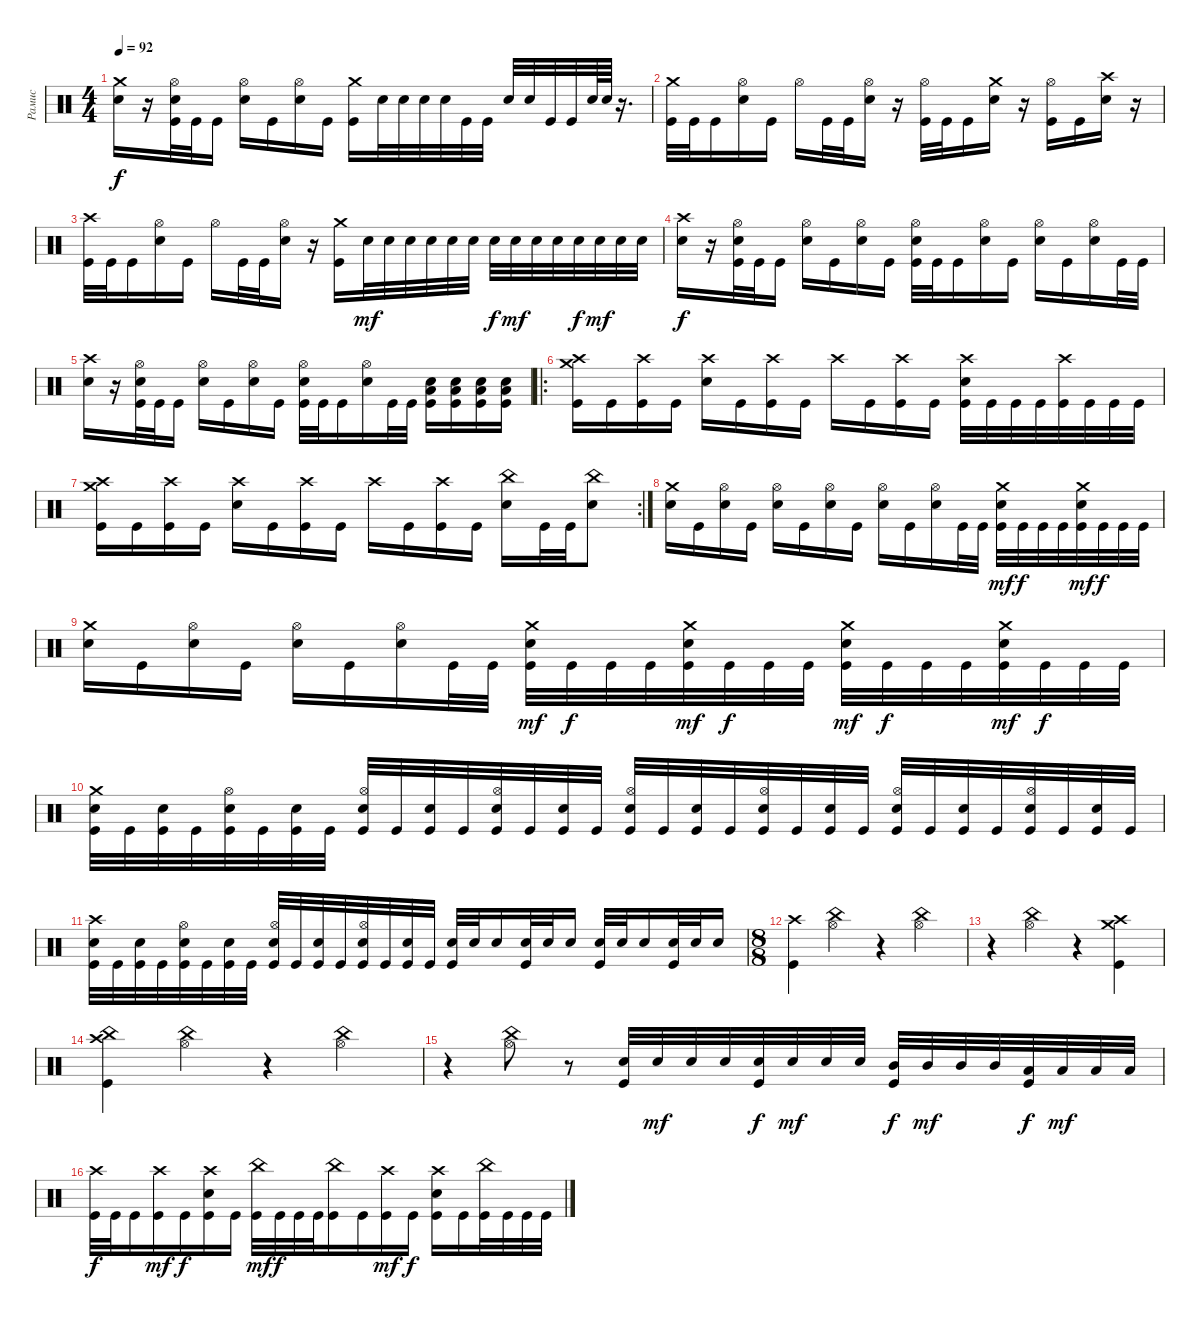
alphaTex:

\track ("Рамис" "Рамис") {instrument percussion}
\staff {score}
\articulation defaults
\ts (4 4)
\tempo 92
\clef neutral
\ks c
("Crash medium (hit)" "Electric Snare (hit)").16{dy f} r.16 ("Hi-Hat (open)" "Electric Snare (hit)" "Kick (hit)").32 "Kick (hit)".32 "Kick (hit)".16 ("Hi-Hat (open)" "Electric Snare (hit)").16 "Kick (hit)".16 ("Hi-Hat (open)" "Electric Snare (hit)").16 "Kick (hit)".16 ("Crash medium (hit)" "Kick (hit)").16 "Electric Snare (hit)".32 "Electric Snare (hit)".32 "Electric Snare (hit)".32 "Electric Snare (hit)".32 "Kick (hit)".32 "Kick (hit)".32 "Electric Snare (hit)".32 "Electric Snare (hit)".32 "Kick (hit)".32 "Kick (hit)".32 "Electric Snare (hit)".64 "Electric Snare (hit)".64 r.16{d} |
("Crash medium (hit)" "Kick (hit)").32 "Kick (hit)".32 "Kick (hit)".16 ("Hi-Hat (open)" "Electric Snare (hit)").16 "Kick (hit)".16 "Hi-Hat (open)".16 "Kick (hit)".32 "Kick (hit)".32 ("Hi-Hat (open)" "Electric Snare (hit)").16 r.16 ("Hi-Hat (open)" "Kick (hit)").32 "Kick (hit)".32 "Kick (hit)".16 ("Crash medium (hit)" "Electric Snare (hit)").16 r.16 ("Hi-Hat (open)" "Kick (hit)").16 "Kick (hit)".16 ("Crash high (hit)" "Electric Snare (hit)").16 r.16 |
("Crash high (hit)" "Kick (hit)").32 "Kick (hit)".32 "Kick (hit)".16 ("Hi-Hat (open)" "Electric Snare (hit)").16 "Kick (hit)".16 "Hi-Hat (open)".16 "Kick (hit)".32 "Kick (hit)".32 ("Hi-Hat (open)" "Electric Snare (hit)").16 r.16 ("Crash medium (hit)" "Kick (hit)").16 "Electric Snare (hit)".32{dy mf} "Electric Snare (hit)".32 "Electric Snare (hit)".32 "Electric Snare (hit)".32 "Electric Snare (hit)".32 "Electric Snare (hit)".32 "Electric Snare (hit)".32{dy f} "Electric Snare (hit)".32{dy mf} "Electric Snare (hit)".32 "Electric Snare (hit)".32 "Electric Snare (hit)".32{dy f} "Electric Snare (hit)".32{dy mf} "Electric Snare (hit)".32 "Electric Snare (hit)".32 |
("Crash high (hit)" "Electric Snare (hit)").16{dy f} r.16 ("Hi-Hat (open)" "Electric Snare (hit)" "Kick (hit)").32 "Kick (hit)".32 "Kick (hit)".16 ("Hi-Hat (open)" "Electric Snare (hit)").16 "Kick (hit)".16 ("Hi-Hat (open)" "Electric Snare (hit)").16 "Kick (hit)".16 ("Hi-Hat (open)" "Electric Snare (hit)" "Kick (hit)").32 "Kick (hit)".32 "Kick (hit)".16 ("Hi-Hat (open)" "Electric Snare (hit)").16 "Kick (hit)".16 ("Hi-Hat (open)" "Electric Snare (hit)").16 "Kick (hit)".16 ("Hi-Hat (open)" "Electric Snare (hit)").16 "Kick (hit)".32 "Kick (hit)".32 |
("Crash high (hit)" "Electric Snare (hit)").16 r.16 ("Hi-Hat (open)" "Electric Snare (hit)" "Kick (hit)").32 "Kick (hit)".32 "Kick (hit)".16 ("Hi-Hat (open)" "Electric Snare (hit)").16 "Kick (hit)".16 ("Hi-Hat (open)" "Electric Snare (hit)").16 "Kick (hit)".16 ("Hi-Hat (open)" "Electric Snare (hit)" "Kick (hit)").32 "Kick (hit)".32 "Kick (hit)".16 ("Hi-Hat (open)" "Electric Snare (hit)").16 "Kick (hit)".32 "Kick (hit)".32 ("Electric Snare (hit)" "Low Floor Tom (hit)" "Kick (hit)").16 ("Electric Snare (hit)" "Low Floor Tom (hit)" "Kick (hit)").16 ("Electric Snare (hit)" "Low Floor Tom (hit)" "Kick (hit)").16 ("Electric Snare (hit)" "Low Floor Tom (hit)" "Kick (hit)").16 |
\ro
("Crash high (hit)" "Crash medium (hit)" "Kick (hit)").16 "Kick (hit)".16 ("Crash high (hit)" "Kick (hit)").16 "Kick (hit)".16 ("Crash high (hit)" "Electric Snare (hit)").16 "Kick (hit)".16 ("Crash high (hit)" "Kick (hit)").16 "Kick (hit)".16 "Crash high (hit)".16 "Kick (hit)".16 ("Crash high (hit)" "Kick (hit)").16 "Kick (hit)".16 ("Crash high (hit)" "Electric Snare (hit)" "Kick (hit)").32 "Kick (hit)".32 "Kick (hit)".32 "Kick (hit)".32 ("Crash high (hit)" "Kick (hit)").32 "Kick (hit)".32 "Kick (hit)".32 "Kick (hit)".32 |
\rc 2
("Crash medium (hit)" "Crash high (hit)" "Kick (hit)").16 "Kick (hit)".16 ("Crash high (hit)" "Kick (hit)").16 "Kick (hit)".16 ("Crash high (hit)" "Electric Snare (hit)").16 "Kick (hit)".16 ("Crash high (hit)" "Kick (hit)").16 "Kick (hit)".16 "Crash high (hit)".16 "Kick (hit)".16 ("Crash high (hit)" "Kick (hit)").16 "Kick (hit)".16 ("China (hit)" "Electric Snare (hit)").16 "Kick (hit)".32 "Kick (hit)".32 ("China (hit)" "Electric Snare (hit)").8 |
("Crash medium (hit)" "Electric Snare (hit)").16 "Kick (hit)".16 ("Hi-Hat (open)" "Electric Snare (hit)").16 "Kick (hit)".16 ("Hi-Hat (open)" "Electric Snare (hit)").16 "Kick (hit)".16 ("Hi-Hat (open)" "Electric Snare (hit)").16 "Kick (hit)".16 ("Hi-Hat (open)" "Electric Snare (hit)").16 "Kick (hit)".16 ("Hi-Hat (open)" "Electric Snare (hit)").16 "Kick (hit)".32 "Kick (hit)".32 ("Crash medium (hit)" "Electric Snare (hit)" "Kick (hit)").32{dy mf} "Kick (hit)".32{dy f} "Kick (hit)".32 "Kick (hit)".32 ("Crash medium (hit)" "Electric Snare (hit)" "Kick (hit)").32{dy mf} "Kick (hit)".32{dy f} "Kick (hit)".32 "Kick (hit)".32 |
("Crash medium (hit)" "Electric Snare (hit)").16 "Kick (hit)".16 ("Hi-Hat (open)" "Electric Snare (hit)").16 "Kick (hit)".16 ("Hi-Hat (open)" "Electric Snare (hit)").16 "Kick (hit)".16 ("Hi-Hat (open)" "Electric Snare (hit)").16 "Kick (hit)".32 "Kick (hit)".32 ("Crash medium (hit)" "Electric Snare (hit)" "Kick (hit)").32{dy mf} "Kick (hit)".32{dy f} "Kick (hit)".32 "Kick (hit)".32 ("Crash medium (hit)" "Electric Snare (hit)" "Kick (hit)").32{dy mf} "Kick (hit)".32{dy f} "Kick (hit)".32 "Kick (hit)".32 ("Crash medium (hit)" "Electric Snare (hit)" "Kick (hit)").32{dy mf} "Kick (hit)".32{dy f} "Kick (hit)".32 "Kick (hit)".32 ("Crash medium (hit)" "Electric Snare (hit)" "Kick (hit)").32{dy mf} "Kick (hit)".32{dy f} "Kick (hit)".32 "Kick (hit)".32 |
("Crash medium (hit)" "Electric Snare (hit)" "Kick (hit)").32 "Kick (hit)".32 ("Electric Snare (hit)" "Kick (hit)").32 "Kick (hit)".32 ("Hi-Hat (open)" "Electric Snare (hit)" "Kick (hit)").32 "Kick (hit)".32 ("Electric Snare (hit)" "Kick (hit)").32 "Kick (hit)".32 ("Hi-Hat (open)" "Electric Snare (hit)" "Kick (hit)").32 "Kick (hit)".32 ("Electric Snare (hit)" "Kick (hit)").32 "Kick (hit)".32 ("Hi-Hat (open)" "Electric Snare (hit)" "Kick (hit)").32 "Kick (hit)".32 ("Electric Snare (hit)" "Kick (hit)").32 "Kick (hit)".32 ("Hi-Hat (open)" "Electric Snare (hit)" "Kick (hit)").32 "Kick (hit)".32 ("Electric Snare (hit)" "Kick (hit)").32 "Kick (hit)".32 ("Hi-Hat (open)" "Electric Snare (hit)" "Kick (hit)").32 "Kick (hit)".32 ("Electric Snare (hit)" "Kick (hit)").32 "Kick (hit)".32 ("Hi-Hat (open)" "Electric Snare (hit)" "Kick (hit)").32 "Kick (hit)".32 ("Electric Snare (hit)" "Kick (hit)").32 "Kick (hit)".32 ("Hi-Hat (open)" "Electric Snare (hit)" "Kick (hit)").32 "Kick (hit)".32 ("Electric Snare (hit)" "Kick (hit)").32 "Kick (hit)".32 |
("Crash high (hit)" "Electric Snare (hit)" "Kick (hit)").32 "Kick (hit)".32 ("Electric Snare (hit)" "Kick (hit)").32 "Kick (hit)".32 ("Hi-Hat (open)" "Electric Snare (hit)" "Kick (hit)").32 "Kick (hit)".32 ("Electric Snare (hit)" "Kick (hit)").32 "Kick (hit)".32 ("Hi-Hat (open)" "Electric Snare (hit)" "Kick (hit)").32 "Kick (hit)".32 ("Electric Snare (hit)" "Kick (hit)").32 "Kick (hit)".32 ("Hi-Hat (open)" "Electric Snare (hit)" "Kick (hit)").32 "Kick (hit)".32 ("Electric Snare (hit)" "Kick (hit)").32 "Kick (hit)".32 ("Kick (hit)" "Electric Snare (hit)").32 "Electric Snare (hit)".32 "Electric Snare (hit)".16 ("Kick (hit)" "Electric Snare (hit)").32 "Electric Snare (hit)".32 "Electric Snare (hit)".16 ("Kick (hit)" "Electric Snare (hit)").32 "Electric Snare (hit)".32 "Electric Snare (hit)".16 ("Kick (hit)" "Electric Snare (hit)").32 "Electric Snare (hit)".32 "Electric Snare (hit)".16 |
\ts (8 8)
("Crash high (hit)" "Kick (hit)").4 ("Hi-Hat (open)" "China (hit)").4 r.4 ("Hi-Hat (open)" "China (hit)").4 |
r.4 ("Hi-Hat (open)" "China (hit)").4 r.4 ("Crash medium (hit)" "Crash high (hit)" "Kick (hit)").4 |
("China (hit)" "Crash high (hit)" "Kick (hit)").4 ("China (hit)" "Hi-Hat (open)").4 r.4 ("Hi-Hat (open)" "China (hit)").4 |
r.4 ("China (hit)" "Hi-Hat (open)").8 r.8 ("Electric Snare (hit)" "Kick (hit)").32 "Electric Snare (hit)".32{dy mf} "Electric Snare (hit)".32 "Electric Snare (hit)".32 ("Electric Snare (hit)" "Kick (hit)").32{dy f} "Electric Snare (hit)".32{dy mf} "Electric Snare (hit)".32 "Electric Snare (hit)".32 ("Mid Tom (hit)" "Kick (hit)").32{dy f} "Mid Tom (hit)".32{dy mf} "Mid Tom (hit)".32 "Mid Tom (hit)".32 ("Low Tom (hit)" "Kick (hit)").32{dy f} "Low Tom (hit)".32{dy mf} "Low Tom (hit)".32 "Low Tom (hit)".32 |
("Crash high (hit)" "Kick (hit)").32{dy f} "Kick (hit)".32 "Kick (hit)".16 ("Crash high (hit)" "Kick (hit)").16{dy mf} "Kick (hit)".16{dy f} ("Crash high (hit)" "Kick (hit)" "Electric Snare (hit)").16 "Kick (hit)".16 ("China (hit)" "Kick (hit)").32{dy mf} "Kick (hit)".32{dy f} "Kick (hit)".32 "Kick (hit)".32 ("China (hit)" "Kick (hit)").16 "Kick (hit)".16 ("Crash high (hit)" "Kick (hit)").16{dy mf} "Kick (hit)".16{dy f} ("Crash high (hit)" "Kick (hit)" "Electric Snare (hit)").16 "Kick (hit)".16 ("China (hit)" "Kick (hit)").32 "Kick (hit)".32 "Kick (hit)".32 "Kick (hit)".32
